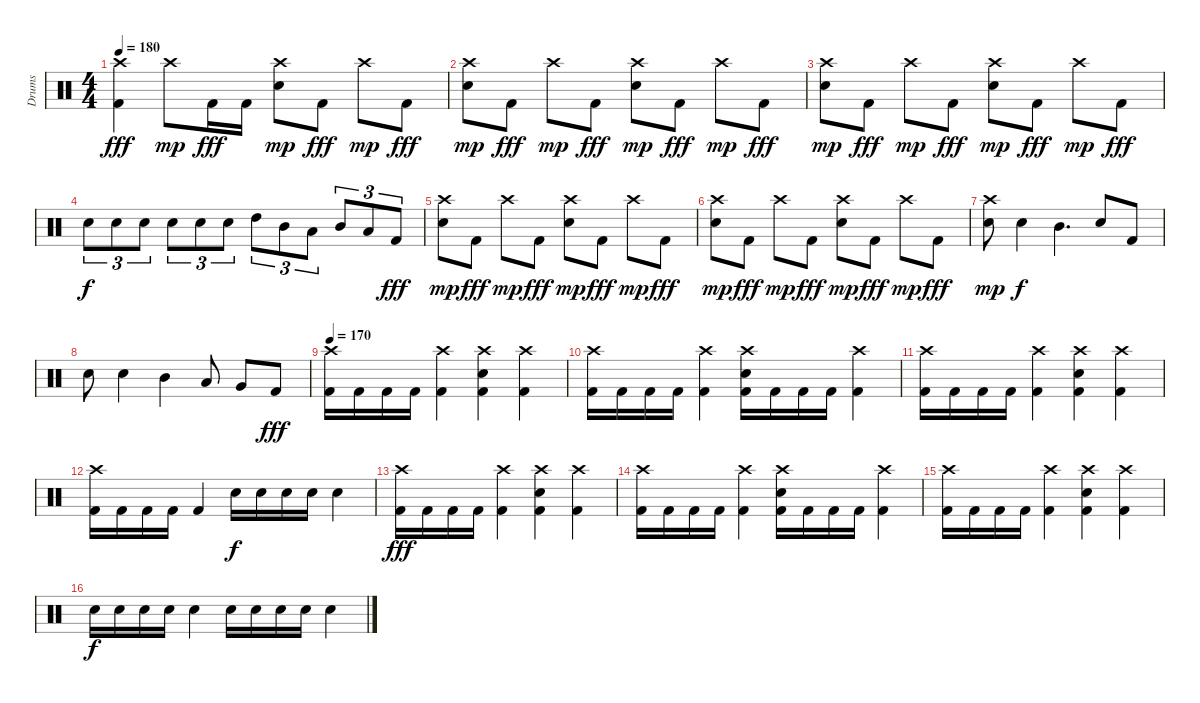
\track ("Drums" "Drums") {instrument percussion}
\staff {score}
\articulation defaults
\ts (4 4)
\tempo 180
\clef neutral
\ks c
("Crash high (hit)" "Kick (hit) 2").4{dy fff} "Crash high (hit)".8{dy mp} "Kick (hit) 2".16{dy fff} "Kick (hit) 2".16 ("Crash high (hit)" "Electric Snare (hit)").8{dy mp} "Kick (hit) 2".8{dy fff} "Crash high (hit)".8{dy mp} "Kick (hit) 2".8{dy fff} |
("Crash high (hit)" "Electric Snare (hit)").8{dy mp} "Kick (hit) 2".8{dy fff} "Crash high (hit)".8{dy mp} "Kick (hit) 2".8{dy fff} ("Crash high (hit)" "Electric Snare (hit)").8{dy mp} "Kick (hit) 2".8{dy fff} "Crash high (hit)".8{dy mp} "Kick (hit) 2".8{dy fff} |
("Crash high (hit)" "Electric Snare (hit)").8{dy mp} "Kick (hit) 2".8{dy fff} "Crash high (hit)".8{dy mp} "Kick (hit) 2".8{dy fff} ("Crash high (hit)" "Electric Snare (hit)").8{dy mp} "Kick (hit) 2".8{dy fff} "Crash high (hit)".8{dy mp} "Kick (hit) 2".8{dy fff} |
"Electric Snare (hit)".8{tu (3 2) dy f} "Electric Snare (hit)".8{tu (3 2)} "Electric Snare (hit)".8{tu (3 2)} "Electric Snare (hit)".8{tu (3 2)} "Electric Snare (hit)".8{tu (3 2)} "Electric Snare (hit)".8{tu (3 2)} "High Tom (hit)".8{tu (3 2)} "Mid Tom (hit)".8{tu (3 2)} "Low Tom (hit)".8{tu (3 2)} "Mid Tom (hit)".8{tu (3 2)} "Low Tom (hit)".8{tu (3 2)} "Kick (hit) 2".8{tu (3 2) dy fff} |
("Crash high (hit)" "Electric Snare (hit)").8{dy mp} "Kick (hit) 2".8{dy fff} "Crash high (hit)".8{dy mp} "Kick (hit) 2".8{dy fff} ("Crash high (hit)" "Electric Snare (hit)").8{dy mp} "Kick (hit) 2".8{dy fff} "Crash high (hit)".8{dy mp} "Kick (hit) 2".8{dy fff} |
("Crash high (hit)" "Electric Snare (hit)").8{dy mp} "Kick (hit) 2".8{dy fff} "Crash high (hit)".8{dy mp} "Kick (hit) 2".8{dy fff} ("Crash high (hit)" "Electric Snare (hit)").8{dy mp} "Kick (hit) 2".8{dy fff} "Crash high (hit)".8{dy mp} "Kick (hit) 2".8{dy fff} |
("Crash high (hit)" "Electric Snare (hit)").8{dy mp} "Electric Snare (hit)".4{dy f} "Mid Tom (hit)".4{d} "Electric Snare (hit)".8 "Kick (hit) 2".8 |
"Electric Snare (hit)".8 "Electric Snare (hit)".4 "Mid Tom (hit)".4 "Low Tom (hit)".8 "Very Low Tom (hit)".8 "Kick (hit) 2".8{dy fff} |
\tempo 170
("Crash high (hit)" "Kick (hit) 2").16 "Kick (hit) 2".16 "Kick (hit) 2".16 "Kick (hit) 2".16 ("Crash high (hit)" "Kick (hit) 2").4 ("Crash high (hit)" "Electric Snare (hit)" "Kick (hit) 2").4 ("Crash high (hit)" "Kick (hit) 2").4 |
("Crash high (hit)" "Kick (hit) 2").16 "Kick (hit) 2".16 "Kick (hit) 2".16 "Kick (hit) 2".16 ("Crash high (hit)" "Kick (hit) 2").4 ("Crash high (hit)" "Electric Snare (hit)" "Kick (hit) 2").16 "Kick (hit) 2".16 "Kick (hit) 2".16 "Kick (hit) 2".16 ("Crash high (hit)" "Kick (hit) 2").4 |
("Crash high (hit)" "Kick (hit) 2").16 "Kick (hit) 2".16 "Kick (hit) 2".16 "Kick (hit) 2".16 ("Crash high (hit)" "Kick (hit) 2").4 ("Crash high (hit)" "Electric Snare (hit)" "Kick (hit) 2").4 ("Crash high (hit)" "Kick (hit) 2").4 |
("Crash high (hit)" "Kick (hit) 2").16 "Kick (hit) 2".16 "Kick (hit) 2".16 "Kick (hit) 2".16 "Kick (hit) 2".4 "Electric Snare (hit)".16{dy f} "Electric Snare (hit)".16 "Electric Snare (hit)".16 "Electric Snare (hit)".16 "Electric Snare (hit)".4 |
("Crash high (hit)" "Kick (hit) 2").16{dy fff} "Kick (hit) 2".16 "Kick (hit) 2".16 "Kick (hit) 2".16 ("Crash high (hit)" "Kick (hit) 2").4 ("Crash high (hit)" "Electric Snare (hit)" "Kick (hit) 2").4 ("Crash high (hit)" "Kick (hit) 2").4 |
("Crash high (hit)" "Kick (hit) 2").16 "Kick (hit) 2".16 "Kick (hit) 2".16 "Kick (hit) 2".16 ("Crash high (hit)" "Kick (hit) 2").4 ("Crash high (hit)" "Electric Snare (hit)" "Kick (hit) 2").16 "Kick (hit) 2".16 "Kick (hit) 2".16 "Kick (hit) 2".16 ("Crash high (hit)" "Kick (hit) 2").4 |
("Crash high (hit)" "Kick (hit) 2").16 "Kick (hit) 2".16 "Kick (hit) 2".16 "Kick (hit) 2".16 ("Crash high (hit)" "Kick (hit) 2").4 ("Crash high (hit)" "Electric Snare (hit)" "Kick (hit) 2").4 ("Crash high (hit)" "Kick (hit) 2").4 |
"Electric Snare (hit)".16{dy f} "Electric Snare (hit)".16 "Electric Snare (hit)".16 "Electric Snare (hit)".16 "Electric Snare (hit)".4 "Electric Snare (hit)".16 "Electric Snare (hit)".16 "Electric Snare (hit)".16 "Electric Snare (hit)".16 "Electric Snare (hit)".4
